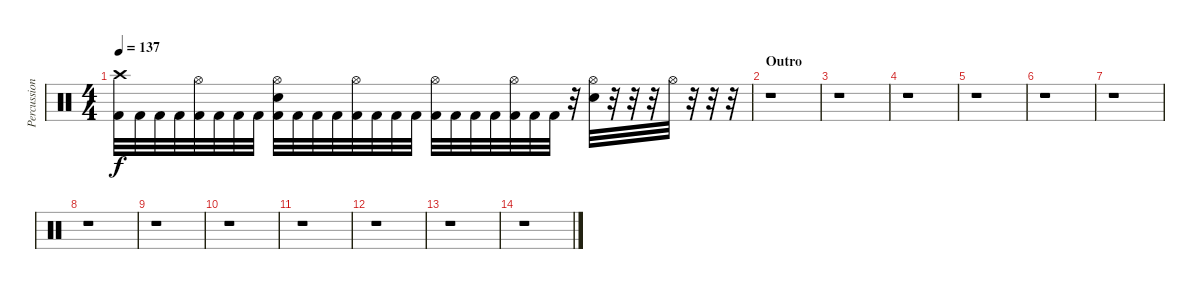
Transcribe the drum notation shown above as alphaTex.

\track ("Percussion" "Percussion") {instrument percussion}
\staff {score}
\articulation defaults
\ts (4 4)
\tempo 137
\clef neutral
\ks c
("Crash high (hit)" "Kick (hit) 2").32{dy f} "Kick (hit) 2".32 "Kick (hit) 2".32 "Kick (hit) 2".32 ("Hi-Hat (open)" "Kick (hit) 2").32 "Kick (hit) 2".32 "Kick (hit) 2".32 "Kick (hit) 2".32 ("Hi-Hat (open)" "Electric Snare (hit)" "Kick (hit) 2").32 "Kick (hit) 2".32 "Kick (hit) 2".32 "Kick (hit) 2".32 ("Hi-Hat (open)" "Kick (hit) 2").32 "Kick (hit) 2".32 "Kick (hit) 2".32 "Kick (hit) 2".32 ("Hi-Hat (open)" "Kick (hit) 2").32 "Kick (hit) 2".32 "Kick (hit) 2".32 "Kick (hit) 2".32 ("Hi-Hat (open)" "Kick (hit) 2").32 "Kick (hit) 2".32 "Kick (hit) 2".32 r.32 ("Hi-Hat (open)" "Electric Snare (hit)").32 r.32 r.32 r.32 "Hi-Hat (open)".32 r.32 r.32 r.32 |
\section ("" "Outro")
r.1 |
r.1 |
r.1 |
r.1 |
r.1 |
r.1 |
r.1 |
r.1 |
r.1 |
r.1 |
r.1 |
r.1 |
r.1
